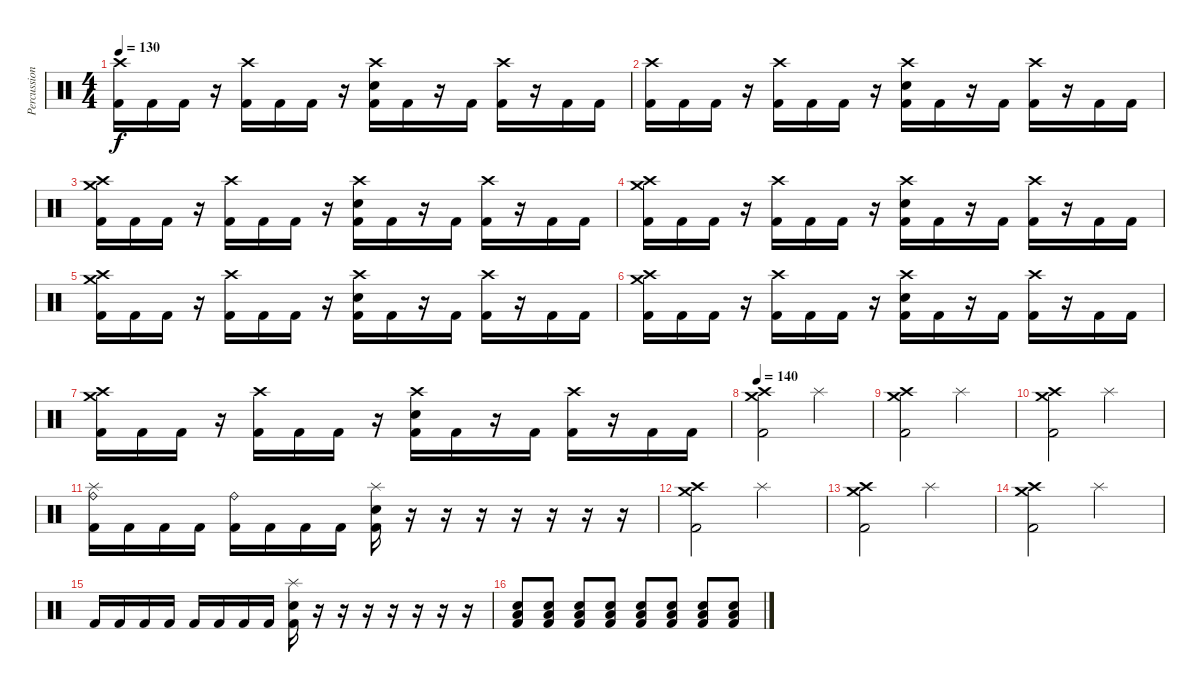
\track ("Percussion" "Percussion") {instrument percussion}
\staff {score}
\articulation defaults
\ts (4 4)
\tempo 130
\clef neutral
\ks c
("Crash high (hit)" "Kick (hit) 2").16{dy f} "Kick (hit) 2".16 "Kick (hit) 2".16 r.16 ("Crash high (hit)" "Kick (hit) 2").16 "Kick (hit) 2".16 "Kick (hit) 2".16 r.16 ("Crash high (hit)" "Electric Snare (hit)" "Kick (hit) 2").16 "Kick (hit) 2".16 r.16 "Kick (hit) 2".16 ("Crash high (hit)" "Kick (hit) 2").16 r.16 "Kick (hit) 2".16 "Kick (hit) 2".16 |
("Crash high (hit)" "Kick (hit) 2").16 "Kick (hit) 2".16 "Kick (hit) 2".16 r.16 ("Crash high (hit)" "Kick (hit) 2").16 "Kick (hit) 2".16 "Kick (hit) 2".16 r.16 ("Crash high (hit)" "Electric Snare (hit)" "Kick (hit) 2").16 "Kick (hit) 2".16 r.16 "Kick (hit) 2".16 ("Crash high (hit)" "Kick (hit) 2").16 r.16 "Kick (hit) 2".16 "Kick (hit) 2".16 |
("Crash medium (hit)" "Crash high (hit)" "Kick (hit) 2").16 "Kick (hit) 2".16 "Kick (hit) 2".16 r.16 ("Crash high (hit)" "Kick (hit) 2").16 "Kick (hit) 2".16 "Kick (hit) 2".16 r.16 ("Crash high (hit)" "Electric Snare (hit)" "Kick (hit) 2").16 "Kick (hit) 2".16 r.16 "Kick (hit) 2".16 ("Crash high (hit)" "Kick (hit) 2").16 r.16 "Kick (hit) 2".16 "Kick (hit) 2".16 |
("Crash medium (hit)" "Crash high (hit)" "Kick (hit) 2").16 "Kick (hit) 2".16 "Kick (hit) 2".16 r.16 ("Crash high (hit)" "Kick (hit) 2").16 "Kick (hit) 2".16 "Kick (hit) 2".16 r.16 ("Crash high (hit)" "Electric Snare (hit)" "Kick (hit) 2").16 "Kick (hit) 2".16 r.16 "Kick (hit) 2".16 ("Crash high (hit)" "Kick (hit) 2").16 r.16 "Kick (hit) 2".16 "Kick (hit) 2".16 |
("Crash medium (hit)" "Crash high (hit)" "Kick (hit) 2").16 "Kick (hit) 2".16 "Kick (hit) 2".16 r.16 ("Crash high (hit)" "Kick (hit) 2").16 "Kick (hit) 2".16 "Kick (hit) 2".16 r.16 ("Crash high (hit)" "Electric Snare (hit)" "Kick (hit) 2").16 "Kick (hit) 2".16 r.16 "Kick (hit) 2".16 ("Crash high (hit)" "Kick (hit) 2").16 r.16 "Kick (hit) 2".16 "Kick (hit) 2".16 |
("Crash medium (hit)" "Crash high (hit)" "Kick (hit) 2").16 "Kick (hit) 2".16 "Kick (hit) 2".16 r.16 ("Crash high (hit)" "Kick (hit) 2").16 "Kick (hit) 2".16 "Kick (hit) 2".16 r.16 ("Crash high (hit)" "Electric Snare (hit)" "Kick (hit) 2").16 "Kick (hit) 2".16 r.16 "Kick (hit) 2".16 ("Crash high (hit)" "Kick (hit) 2").16 r.16 "Kick (hit) 2".16 "Kick (hit) 2".16 |
("Crash medium (hit)" "Crash high (hit)" "Kick (hit) 2").16 "Kick (hit) 2".16 "Kick (hit) 2".16 r.16 ("Crash high (hit)" "Kick (hit) 2").16 "Kick (hit) 2".16 "Kick (hit) 2".16 r.16 ("Crash high (hit)" "Electric Snare (hit)" "Kick (hit) 2").16 "Kick (hit) 2".16 r.16 "Kick (hit) 2".16 ("Crash high (hit)" "Kick (hit) 2").16 r.16 "Kick (hit) 2".16 "Kick (hit) 2".16 |
\tempo 140
("Crash medium (hit)" "Crash high (hit)" "Kick (hit) 2").2 "Splash (hit)".2 |
("Crash medium (hit)" "Crash high (hit)" "Kick (hit) 2").2 "Splash (hit)".2 |
("Crash medium (hit)" "Crash high (hit)" "Kick (hit) 2").2 "Splash (hit)".2 |
("Splash (hit)" "Ride (bell)" "Kick (hit) 2").16 "Kick (hit) 2".16 "Kick (hit) 2".16 "Kick (hit) 2".16 ("Ride (bell)" "Kick (hit) 2").16 "Kick (hit) 2".16 "Kick (hit) 2".16 "Kick (hit) 2".16 ("Splash (hit)" "Electric Snare (hit)" "Kick (hit) 2").16 r.16 r.16 r.16 r.16 r.16 r.16 r.16 |
("Crash medium (hit)" "Crash high (hit)" "Kick (hit) 2").2 "Splash (hit)".2 |
("Crash medium (hit)" "Crash high (hit)" "Kick (hit) 2").2 "Splash (hit)".2 |
("Crash medium (hit)" "Crash high (hit)" "Kick (hit) 2").2 "Splash (hit)".2 |
"Kick (hit) 2".16 "Kick (hit) 2".16 "Kick (hit) 2".16 "Kick (hit) 2".16 "Kick (hit) 2".16 "Kick (hit) 2".16 "Kick (hit) 2".16 "Kick (hit) 2".16 ("Splash (hit)" "Electric Snare (hit)" "Kick (hit) 2").16 r.16 r.16 r.16 r.16 r.16 r.16 r.16 |
("Electric Snare (hit)" "Low Floor Tom (hit)" "Kick (hit) 2").8 ("Electric Snare (hit)" "Low Floor Tom (hit)" "Kick (hit) 2").8 ("Electric Snare (hit)" "Low Floor Tom (hit)" "Kick (hit) 2").8 ("Electric Snare (hit)" "Low Floor Tom (hit)" "Kick (hit) 2").8 ("Electric Snare (hit)" "Low Floor Tom (hit)" "Kick (hit) 2").8 ("Electric Snare (hit)" "Low Floor Tom (hit)" "Kick (hit) 2").8 ("Electric Snare (hit)" "Low Floor Tom (hit)" "Kick (hit) 2").8 ("Electric Snare (hit)" "Low Floor Tom (hit)" "Kick (hit) 2").8
